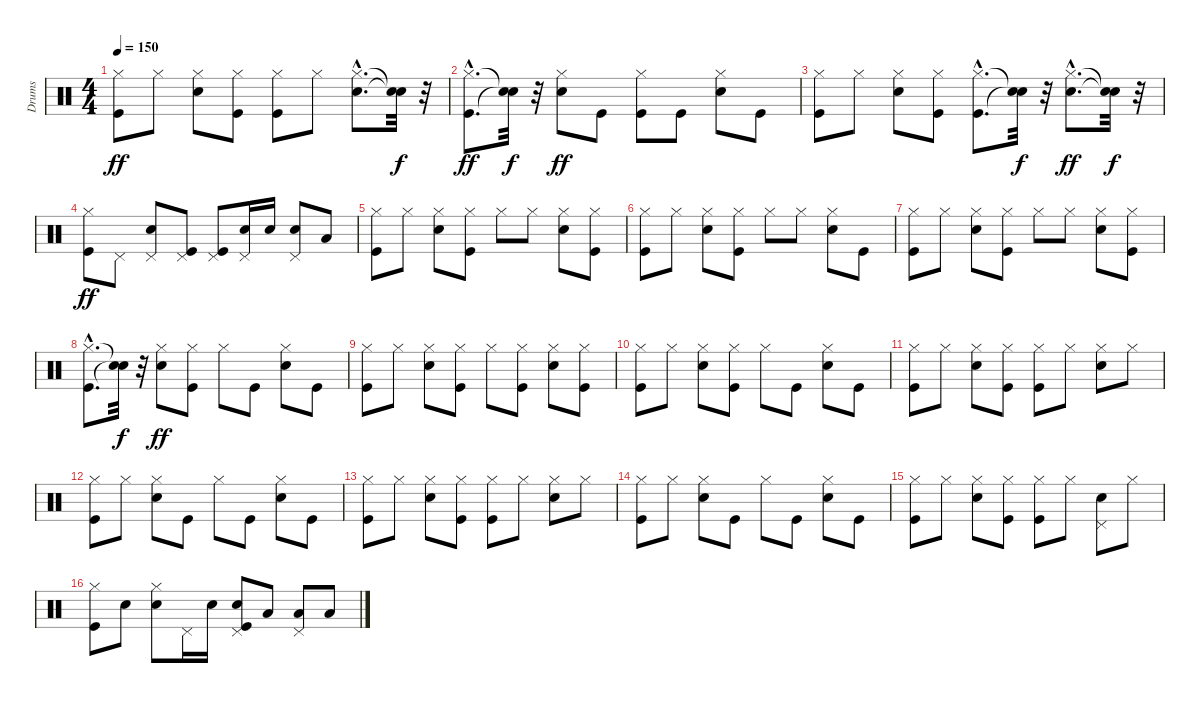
\track ("Drums" "Drums") {instrument percussion}
\staff {score}
\articulation defaults
\ts (4 4)
\tempo 150
\clef neutral
\ks c
("Kick (hit)" "Hi-Hat (closed)").8{dy ff} "Hi-Hat (closed)".8 ("Snare (hit) 2" "Hi-Hat (closed)").8 ("Kick (hit)" "Hi-Hat (closed)").8 ("Kick (hit)" "Hi-Hat (closed)").8 "Hi-Hat (closed)".8 ("Snare (hit) 2"{hac} "Hi-Hat (closed)"{hac}).8{d} ("Snare (hit)"{t} "Snare (hit)"{t}).32{dy f} r.32 |
("Kick (hit)"{hac} "Hi-Hat (closed)"{hac}).8{d dy ff} ("Snare (hit)"{t} "Snare (hit)"{t}).32{dy f} r.32 ("Snare (hit) 2" "Hi-Hat (closed)").8{dy ff} "Kick (hit)".8 ("Kick (hit)" "Hi-Hat (closed)").8 "Kick (hit)".8 ("Snare (hit) 2" "Hi-Hat (closed)").8 "Kick (hit)".8 |
("Kick (hit)" "Hi-Hat (closed)").8 "Hi-Hat (closed)".8 ("Snare (hit) 2" "Hi-Hat (closed)").8 ("Kick (hit)" "Hi-Hat (closed)").8 ("Kick (hit)"{hac} "Hi-Hat (closed)"{hac}).8{d} ("Snare (hit)"{t} "Snare (hit)"{t}).32{dy f} r.32 ("Snare (hit) 2"{hac} "Hi-Hat (closed)"{hac}).8{d dy ff} ("Snare (hit)"{t} "Snare (hit)"{t}).32{dy f} r.32 |
("Kick (hit)" "Hi-Hat (closed)").8{dy ff} "Pedal Hi-Hat (hit)".8 ("Snare (hit) 2" "Pedal Hi-Hat (hit)").8 ("Kick (hit)" "Pedal Hi-Hat (hit)").8 ("Kick (hit)" "Pedal Hi-Hat (hit)").8 ("Snare (hit) 2" "Pedal Hi-Hat (hit)").16 "Snare (hit) 2".16 ("Snare (hit) 2" "Pedal Hi-Hat (hit)").8 "Low Floor Tom (hit)".8 |
("Kick (hit)" "Hi-Hat (closed)").8 "Hi-Hat (closed)".8 ("Snare (hit) 2" "Hi-Hat (closed)").8 ("Kick (hit)" "Hi-Hat (closed)").8 "Hi-Hat (closed)".8 "Hi-Hat (closed)".8 ("Snare (hit) 2" "Hi-Hat (closed)").8 ("Kick (hit)" "Hi-Hat (closed)").8 |
("Kick (hit)" "Hi-Hat (closed)").8 "Hi-Hat (closed)".8 ("Snare (hit) 2" "Hi-Hat (closed)").8 ("Kick (hit)" "Hi-Hat (closed)").8 "Hi-Hat (closed)".8 "Hi-Hat (closed)".8 ("Snare (hit) 2" "Hi-Hat (closed)").8 "Kick (hit)".8 |
("Kick (hit)" "Hi-Hat (closed)").8 "Hi-Hat (closed)".8 ("Snare (hit) 2" "Hi-Hat (closed)").8 ("Kick (hit)" "Hi-Hat (closed)").8 "Hi-Hat (closed)".8 "Hi-Hat (closed)".8 ("Snare (hit) 2" "Hi-Hat (closed)").8 ("Kick (hit)" "Hi-Hat (closed)").8 |
("Kick (hit)"{hac} "Hi-Hat (closed)"{hac}).8{d} ("Snare (hit)"{t} "Snare (hit)"{t}).32{dy f} r.32 ("Snare (hit) 2" "Hi-Hat (closed)").8{dy ff} ("Kick (hit)" "Hi-Hat (closed)").8 "Hi-Hat (closed)".8 "Kick (hit)".8 ("Snare (hit) 2" "Hi-Hat (closed)").8 "Kick (hit)".8 |
("Kick (hit)" "Hi-Hat (closed)").8 "Hi-Hat (closed)".8 ("Snare (hit) 2" "Hi-Hat (closed)").8 ("Kick (hit)" "Hi-Hat (closed)").8 "Hi-Hat (closed)".8 ("Kick (hit)" "Hi-Hat (closed)").8 ("Snare (hit) 2" "Hi-Hat (closed)").8 ("Kick (hit)" "Hi-Hat (closed)").8 |
("Kick (hit)" "Hi-Hat (closed)").8 "Hi-Hat (closed)".8 ("Snare (hit) 2" "Hi-Hat (closed)").8 ("Kick (hit)" "Hi-Hat (closed)").8 "Hi-Hat (closed)".8 "Kick (hit)".8 ("Snare (hit) 2" "Hi-Hat (closed)").8 "Kick (hit)".8 |
("Kick (hit)" "Hi-Hat (closed)").8 "Hi-Hat (closed)".8 ("Snare (hit) 2" "Hi-Hat (closed)").8 ("Kick (hit)" "Hi-Hat (closed)").8 ("Kick (hit)" "Hi-Hat (closed)").8 "Hi-Hat (closed)".8 ("Snare (hit) 2" "Hi-Hat (closed)").8 "Hi-Hat (closed)".8 |
("Kick (hit)" "Hi-Hat (closed)").8 "Hi-Hat (closed)".8 ("Snare (hit) 2" "Hi-Hat (closed)").8 "Kick (hit)".8 "Hi-Hat (closed)".8 "Kick (hit)".8 ("Snare (hit) 2" "Hi-Hat (closed)").8 "Kick (hit)".8 |
("Kick (hit)" "Hi-Hat (closed)").8 "Hi-Hat (closed)".8 ("Snare (hit) 2" "Hi-Hat (closed)").8 ("Kick (hit)" "Hi-Hat (closed)").8 ("Kick (hit)" "Hi-Hat (closed)").8 "Hi-Hat (closed)".8 ("Snare (hit) 2" "Hi-Hat (closed)").8 "Hi-Hat (closed)".8 |
("Kick (hit)" "Hi-Hat (closed)").8 "Hi-Hat (closed)".8 ("Snare (hit) 2" "Hi-Hat (closed)").8 "Kick (hit)".8 "Hi-Hat (closed)".8 "Kick (hit)".8 ("Snare (hit) 2" "Hi-Hat (closed)").8 "Kick (hit)".8 |
("Kick (hit)" "Hi-Hat (closed)").8 "Hi-Hat (closed)".8 ("Snare (hit) 2" "Hi-Hat (closed)").8 ("Kick (hit)" "Hi-Hat (closed)").8 ("Kick (hit)" "Hi-Hat (closed)").8 "Hi-Hat (closed)".8 ("Snare (hit) 2" "Pedal Hi-Hat (hit)").8 "Hi-Hat (closed)".8 |
("Kick (hit)" "Hi-Hat (closed)").8 "Snare (hit) 2".8 ("Snare (hit) 2" "Hi-Hat (closed)").8 "Pedal Hi-Hat (hit)".16 "Snare (hit) 2".16 ("Kick (hit)" "Snare (hit) 2" "Pedal Hi-Hat (hit)").8 "Low Tom (hit)".8 ("Low Floor Tom (hit)" "Pedal Hi-Hat (hit)").8 "Low Floor Tom (hit)".8
